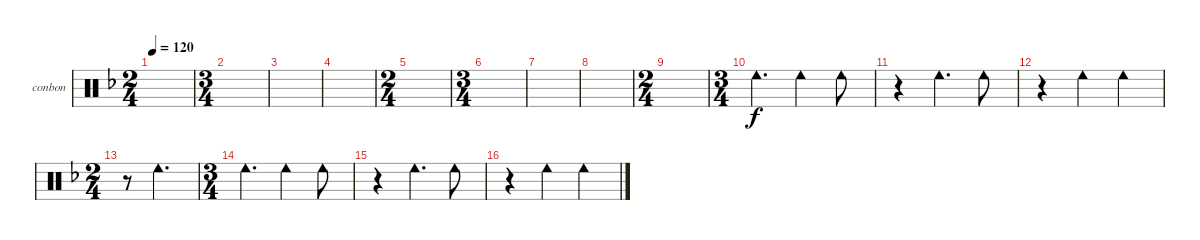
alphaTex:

\defaultSystemsLayout 4
\bracketExtendMode groupsimilarinstruments
\firstSystemTrackNameOrientation horizontal
\otherSystemsTrackNameOrientation horizontal
\track ("Bongos N Congas" "conbon") {instrument percussion}
\staff {score}
\articulation defaults
\ts (2 4)
\tempo 120
\clef neutral
\ks f
|
\ts (3 4)
|
|
|
\ts (2 4)
|
\ts (3 4)
|
|
|
\ts (2 4)
|
\ts (3 4)
"Cowbell low (hit)".4{d dy f} "Cowbell low (hit)".4 "Cowbell low (hit)".8 |
r.4 "Cowbell low (hit)".4{d} "Cowbell low (hit)".8 |
r.4 "Cowbell low (hit)".4 "Cowbell low (hit)".4 |
\ts (2 4)
r.8 "Cowbell low (hit)".4{d} |
\ts (3 4)
"Cowbell low (hit)".4{d} "Cowbell low (hit)".4 "Cowbell low (hit)".8 |
r.4 "Cowbell low (hit)".4{d} "Cowbell low (hit)".8 |
r.4 "Cowbell low (hit)".4 "Cowbell low (hit)".4
